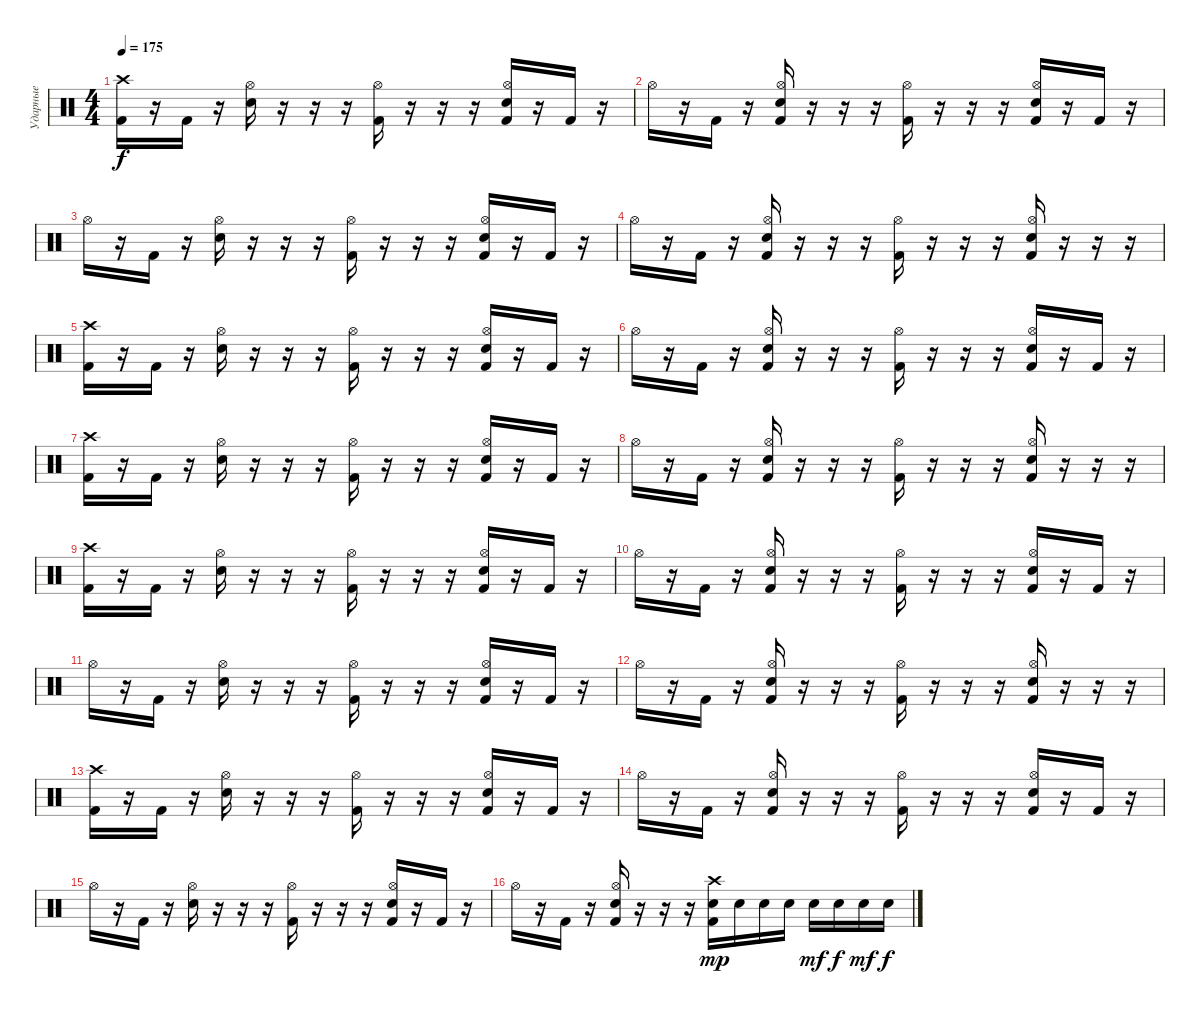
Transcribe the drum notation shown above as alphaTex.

\track ("Ударные" "Ударные") {instrument percussion}
\staff {score}
\articulation defaults
\ts (4 4)
\tempo 175
\clef neutral
\ks c
("Crash high (hit)" "Kick (hit) 2").16{dy f} r.16 "Kick (hit) 2".16 r.16 ("Hi-Hat (open)" "Electric Snare (hit)").16 r.16 r.16 r.16 ("Hi-Hat (open)" "Kick (hit) 2").16 r.16 r.16 r.16 ("Hi-Hat (open)" "Electric Snare (hit)" "Kick (hit) 2").16 r.16 "Kick (hit) 2".16 r.16 |
"Hi-Hat (open)".16 r.16 "Kick (hit) 2".16 r.16 ("Hi-Hat (open)" "Electric Snare (hit)" "Kick (hit) 2").16 r.16 r.16 r.16 ("Hi-Hat (open)" "Kick (hit) 2").16 r.16 r.16 r.16 ("Hi-Hat (open)" "Electric Snare (hit)" "Kick (hit) 2").16 r.16 "Kick (hit) 2".16 r.16 |
"Hi-Hat (open)".16 r.16 "Kick (hit) 2".16 r.16 ("Hi-Hat (open)" "Electric Snare (hit)").16 r.16 r.16 r.16 ("Hi-Hat (open)" "Kick (hit) 2").16 r.16 r.16 r.16 ("Hi-Hat (open)" "Electric Snare (hit)" "Kick (hit) 2").16 r.16 "Kick (hit) 2".16 r.16 |
"Hi-Hat (open)".16 r.16 "Kick (hit) 2".16 r.16 ("Hi-Hat (open)" "Electric Snare (hit)" "Kick (hit) 2").16 r.16 r.16 r.16 ("Hi-Hat (open)" "Kick (hit) 2").16 r.16 r.16 r.16 ("Hi-Hat (open)" "Electric Snare (hit)" "Kick (hit) 2").16 r.16 r.16 r.16 |
("Crash high (hit)" "Kick (hit) 2").16 r.16 "Kick (hit) 2".16 r.16 ("Hi-Hat (open)" "Electric Snare (hit)").16 r.16 r.16 r.16 ("Hi-Hat (open)" "Kick (hit) 2").16 r.16 r.16 r.16 ("Hi-Hat (open)" "Electric Snare (hit)" "Kick (hit) 2").16 r.16 "Kick (hit) 2".16 r.16 |
"Hi-Hat (open)".16 r.16 "Kick (hit) 2".16 r.16 ("Hi-Hat (open)" "Electric Snare (hit)" "Kick (hit) 2").16 r.16 r.16 r.16 ("Hi-Hat (open)" "Kick (hit) 2").16 r.16 r.16 r.16 ("Hi-Hat (open)" "Electric Snare (hit)" "Kick (hit) 2").16 r.16 "Kick (hit) 2".16 r.16 |
("Crash high (hit)" "Kick (hit) 2").16 r.16 "Kick (hit) 2".16 r.16 ("Hi-Hat (open)" "Electric Snare (hit)").16 r.16 r.16 r.16 ("Hi-Hat (open)" "Kick (hit) 2").16 r.16 r.16 r.16 ("Hi-Hat (open)" "Electric Snare (hit)" "Kick (hit) 2").16 r.16 "Kick (hit) 2".16 r.16 |
"Hi-Hat (open)".16 r.16 "Kick (hit) 2".16 r.16 ("Hi-Hat (open)" "Electric Snare (hit)" "Kick (hit) 2").16 r.16 r.16 r.16 ("Hi-Hat (open)" "Kick (hit) 2").16 r.16 r.16 r.16 ("Hi-Hat (open)" "Electric Snare (hit)" "Kick (hit) 2").16 r.16 r.16 r.16 |
("Crash high (hit)" "Kick (hit) 2").16 r.16 "Kick (hit) 2".16 r.16 ("Hi-Hat (open)" "Electric Snare (hit)").16 r.16 r.16 r.16 ("Hi-Hat (open)" "Kick (hit) 2").16 r.16 r.16 r.16 ("Hi-Hat (open)" "Electric Snare (hit)" "Kick (hit) 2").16 r.16 "Kick (hit) 2".16 r.16 |
"Hi-Hat (open)".16 r.16 "Kick (hit) 2".16 r.16 ("Hi-Hat (open)" "Electric Snare (hit)" "Kick (hit) 2").16 r.16 r.16 r.16 ("Hi-Hat (open)" "Kick (hit) 2").16 r.16 r.16 r.16 ("Hi-Hat (open)" "Electric Snare (hit)" "Kick (hit) 2").16 r.16 "Kick (hit) 2".16 r.16 |
"Hi-Hat (open)".16 r.16 "Kick (hit) 2".16 r.16 ("Hi-Hat (open)" "Electric Snare (hit)").16 r.16 r.16 r.16 ("Hi-Hat (open)" "Kick (hit) 2").16 r.16 r.16 r.16 ("Hi-Hat (open)" "Electric Snare (hit)" "Kick (hit) 2").16 r.16 "Kick (hit) 2".16 r.16 |
"Hi-Hat (open)".16 r.16 "Kick (hit) 2".16 r.16 ("Hi-Hat (open)" "Electric Snare (hit)" "Kick (hit) 2").16 r.16 r.16 r.16 ("Hi-Hat (open)" "Kick (hit) 2").16 r.16 r.16 r.16 ("Hi-Hat (open)" "Electric Snare (hit)" "Kick (hit) 2").16 r.16 r.16 r.16 |
("Crash high (hit)" "Kick (hit) 2").16 r.16 "Kick (hit) 2".16 r.16 ("Hi-Hat (open)" "Electric Snare (hit)").16 r.16 r.16 r.16 ("Hi-Hat (open)" "Kick (hit) 2").16 r.16 r.16 r.16 ("Hi-Hat (open)" "Electric Snare (hit)" "Kick (hit) 2").16 r.16 "Kick (hit) 2".16 r.16 |
"Hi-Hat (open)".16 r.16 "Kick (hit) 2".16 r.16 ("Hi-Hat (open)" "Electric Snare (hit)" "Kick (hit) 2").16 r.16 r.16 r.16 ("Hi-Hat (open)" "Kick (hit) 2").16 r.16 r.16 r.16 ("Hi-Hat (open)" "Electric Snare (hit)" "Kick (hit) 2").16 r.16 "Kick (hit) 2".16 r.16 |
"Hi-Hat (open)".16 r.16 "Kick (hit) 2".16 r.16 ("Hi-Hat (open)" "Electric Snare (hit)").16 r.16 r.16 r.16 ("Hi-Hat (open)" "Kick (hit) 2").16 r.16 r.16 r.16 ("Hi-Hat (open)" "Electric Snare (hit)" "Kick (hit) 2").16 r.16 "Kick (hit) 2".16 r.16 |
"Hi-Hat (open)".16 r.16 "Kick (hit) 2".16 r.16 ("Hi-Hat (open)" "Electric Snare (hit)" "Kick (hit) 2").16 r.16 r.16 r.16 ("Crash high (hit)" "Electric Snare (hit)" "Kick (hit) 2").16{dy mp} "Electric Snare (hit)".16 "Electric Snare (hit)".16 "Electric Snare (hit)".16 "Electric Snare (hit)".16{dy mf} "Electric Snare (hit)".16{dy f} "Electric Snare (hit)".16{dy mf} "Electric Snare (hit)".16{dy f}
